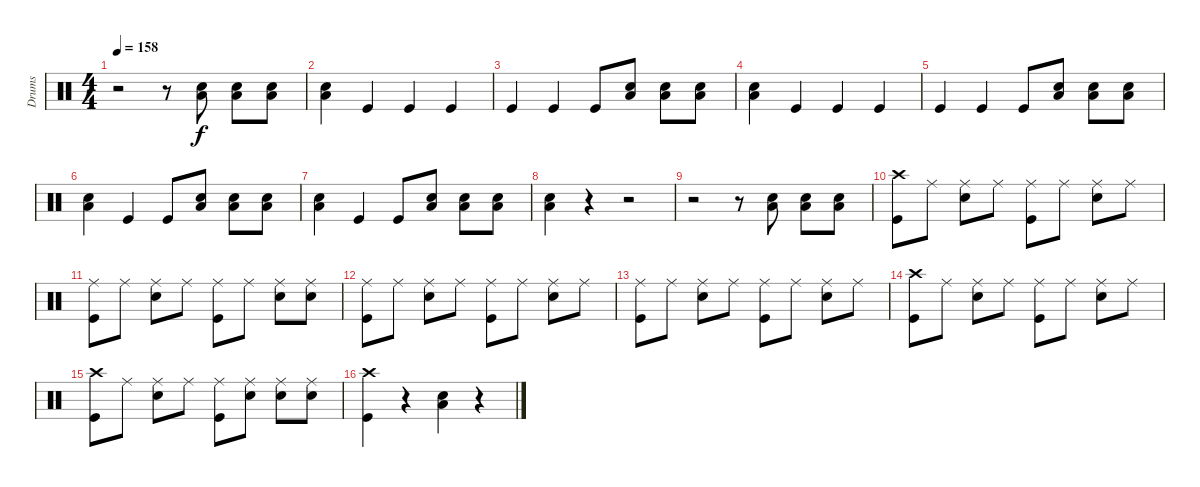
\track ("Drums" "Drums") {instrument percussion}
\staff {score}
\articulation defaults
\ts (4 4)
\tempo 158
\clef neutral
\ks c
r.2{dy f} r.8 ("Snare (hit) 2" "Low Floor Tom (hit)").8 ("Snare (hit) 2" "Low Floor Tom (hit)").8 ("Snare (hit) 2" "Low Floor Tom (hit)").8 |
("Snare (hit) 2" "Low Floor Tom (hit)").4 "Kick (hit)".4 "Kick (hit)".4 "Kick (hit)".4 |
"Kick (hit)".4 "Kick (hit)".4 "Kick (hit)".8 ("Snare (hit) 2" "Low Floor Tom (hit)").8 ("Snare (hit) 2" "Low Floor Tom (hit)").8 ("Snare (hit) 2" "Low Floor Tom (hit)").8 |
("Snare (hit) 2" "Low Floor Tom (hit)").4 "Kick (hit)".4 "Kick (hit)".4 "Kick (hit)".4 |
"Kick (hit)".4 "Kick (hit)".4 "Kick (hit)".8 ("Snare (hit) 2" "Low Floor Tom (hit)").8 ("Snare (hit) 2" "Low Floor Tom (hit)").8 ("Snare (hit) 2" "Low Floor Tom (hit)").8 |
("Snare (hit) 2" "Low Floor Tom (hit)").4 "Kick (hit)".4 "Kick (hit)".8 ("Snare (hit) 2" "Low Floor Tom (hit)").8 ("Snare (hit) 2" "Low Floor Tom (hit)").8 ("Snare (hit) 2" "Low Floor Tom (hit)").8 |
("Snare (hit) 2" "Low Floor Tom (hit)").4 "Kick (hit)".4 "Kick (hit)".8 ("Snare (hit) 2" "Low Floor Tom (hit)").8 ("Snare (hit) 2" "Low Floor Tom (hit)").8 ("Snare (hit) 2" "Low Floor Tom (hit)").8 |
("Snare (hit) 2" "Low Floor Tom (hit)").4 r.4 r.2 |
r.2 r.8 ("Snare (hit) 2" "Low Floor Tom (hit)").8 ("Snare (hit) 2" "Low Floor Tom (hit)").8 ("Snare (hit) 2" "Low Floor Tom (hit)").8 |
("Crash high (hit)" "Kick (hit)").8 "Ride (middle)".8 ("Ride (middle)" "Snare (hit) 2").8 "Ride (middle)".8 ("Ride (middle)" "Kick (hit)").8 "Ride (middle)".8 ("Ride (middle)" "Snare (hit) 2").8 "Ride (middle)".8 |
("Ride (middle)" "Kick (hit)").8 "Ride (middle)".8 ("Ride (middle)" "Snare (hit) 2").8 "Ride (middle)".8 ("Ride (middle)" "Kick (hit)").8 "Ride (middle)".8 ("Ride (middle)" "Snare (hit) 2").8 ("Ride (middle)" "Snare (hit) 2").8 |
("Ride (middle)" "Kick (hit)").8 "Ride (middle)".8 ("Ride (middle)" "Snare (hit) 2").8 "Ride (middle)".8 ("Ride (middle)" "Kick (hit)").8 "Ride (middle)".8 ("Ride (middle)" "Snare (hit) 2").8 "Ride (middle)".8 |
("Ride (middle)" "Kick (hit)").8 "Ride (middle)".8 ("Ride (middle)" "Snare (hit) 2").8 "Ride (middle)".8 ("Ride (middle)" "Kick (hit)").8 "Ride (middle)".8 ("Ride (middle)" "Snare (hit) 2").8 "Ride (middle)".8 |
("Crash high (hit)" "Kick (hit)").8 "Ride (middle)".8 ("Ride (middle)" "Snare (hit) 2").8 "Ride (middle)".8 ("Ride (middle)" "Kick (hit)").8 "Ride (middle)".8 ("Ride (middle)" "Snare (hit) 2").8 "Ride (middle)".8 |
("Crash high (hit)" "Kick (hit)").8 "Ride (middle)".8 ("Ride (middle)" "Snare (hit) 2").8 "Ride (middle)".8 ("Ride (middle)" "Kick (hit)").8 ("Ride (middle)" "Snare (hit) 2").8 ("Ride (middle)" "Snare (hit) 2").8 ("Ride (middle)" "Snare (hit) 2").8 |
("Crash high (hit)" "Kick (hit)").4 r.4 ("Snare (hit) 2" "Low Floor Tom (hit)").4 r.4
